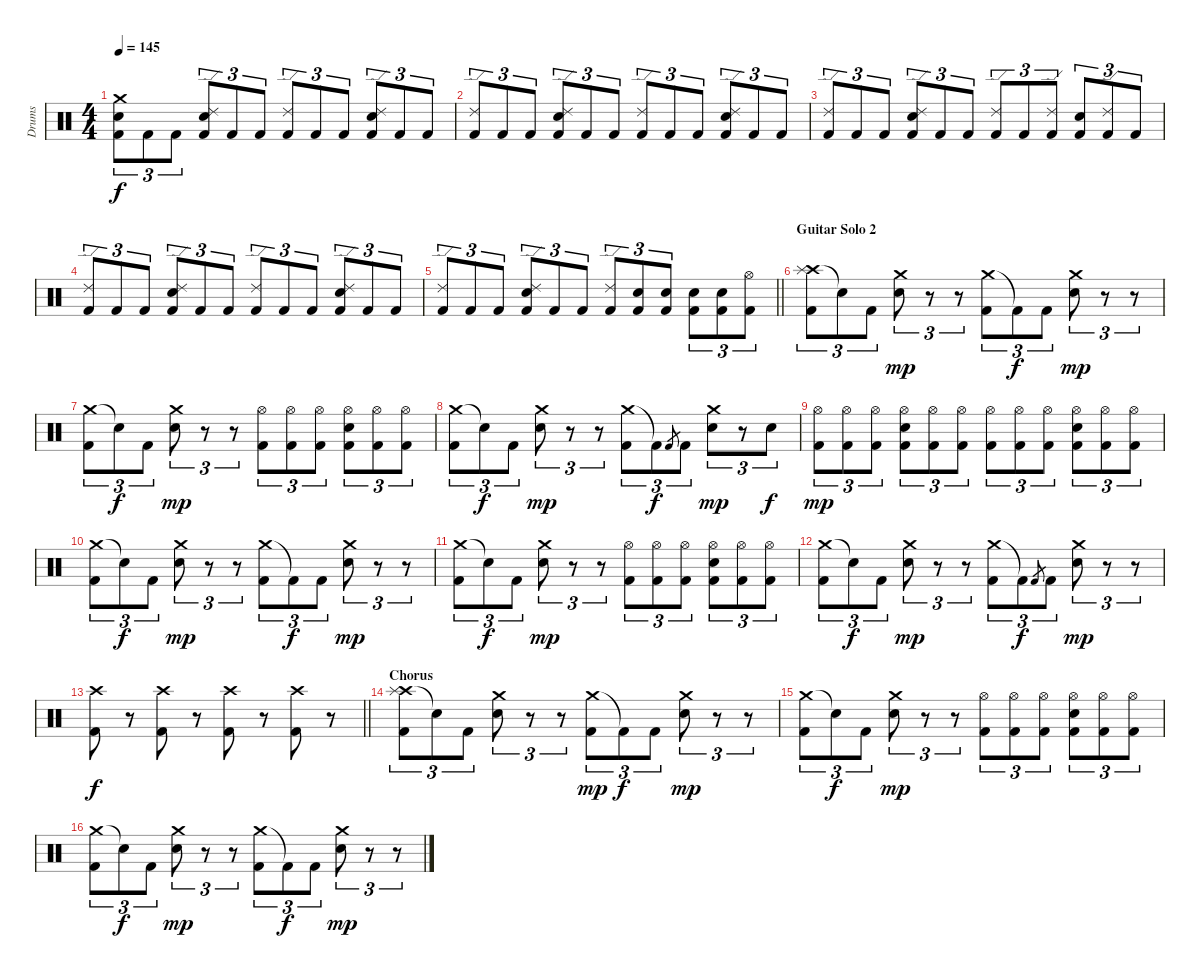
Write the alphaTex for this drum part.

\track ("Drums" "Drums") {instrument percussion}
\staff {score}
\articulation defaults
\ts (4 4)
\tempo 145
\clef neutral
\ks c
("Crash medium (hit)" "Snare (hit) 2" "Kick (hit) 2").8{tu (3 2) dy f} "Kick (hit) 2".8{tu (3 2)} "Kick (hit) 2".8{tu (3 2)} ("Ride (edge) 2" "Snare (hit) 2" "Kick (hit) 2").8{tu (3 2)} "Kick (hit) 2".8{tu (3 2)} "Kick (hit) 2".8{tu (3 2)} ("Ride (edge) 2" "Kick (hit) 2").8{tu (3 2)} "Kick (hit) 2".8{tu (3 2)} "Kick (hit) 2".8{tu (3 2)} ("Ride (edge) 2" "Snare (hit) 2" "Kick (hit) 2").8{tu (3 2)} "Kick (hit) 2".8{tu (3 2)} "Kick (hit) 2".8{tu (3 2)} |
("Ride (edge) 2" "Kick (hit) 2").8{tu (3 2)} "Kick (hit) 2".8{tu (3 2)} "Kick (hit) 2".8{tu (3 2)} ("Ride (edge) 2" "Snare (hit) 2" "Kick (hit) 2").8{tu (3 2)} "Kick (hit) 2".8{tu (3 2)} "Kick (hit) 2".8{tu (3 2)} ("Ride (edge) 2" "Kick (hit) 2").8{tu (3 2)} "Kick (hit) 2".8{tu (3 2)} "Kick (hit) 2".8{tu (3 2)} ("Ride (edge) 2" "Snare (hit) 2" "Kick (hit) 2").8{tu (3 2)} "Kick (hit) 2".8{tu (3 2)} "Kick (hit) 2".8{tu (3 2)} |
("Ride (edge) 2" "Kick (hit) 2").8{tu (3 2)} "Kick (hit) 2".8{tu (3 2)} "Kick (hit) 2".8{tu (3 2)} ("Ride (edge) 2" "Snare (hit) 2" "Kick (hit) 2").8{tu (3 2)} "Kick (hit) 2".8{tu (3 2)} "Kick (hit) 2".8{tu (3 2)} ("Ride (edge) 2" "Kick (hit) 2").8{tu (3 2)} "Kick (hit) 2".8{tu (3 2)} ("Ride (edge) 2" "Kick (hit) 2").8{tu (3 2)} ("Snare (hit) 2" "Kick (hit) 2").8{tu (3 2)} ("Ride (edge) 2" "Kick (hit) 2").8{tu (3 2)} "Kick (hit) 2".8{tu (3 2)} |
("Ride (edge) 2" "Kick (hit) 2").8{tu (3 2)} "Kick (hit) 2".8{tu (3 2)} "Kick (hit) 2".8{tu (3 2)} ("Ride (edge) 2" "Snare (hit) 2" "Kick (hit) 2").8{tu (3 2)} "Kick (hit) 2".8{tu (3 2)} "Kick (hit) 2".8{tu (3 2)} ("Ride (edge) 2" "Kick (hit) 2").8{tu (3 2)} "Kick (hit) 2".8{tu (3 2)} "Kick (hit) 2".8{tu (3 2)} ("Ride (edge) 2" "Snare (hit) 2" "Kick (hit) 2").8{tu (3 2)} "Kick (hit) 2".8{tu (3 2)} "Kick (hit) 2".8{tu (3 2)} |
\barLineRight lightlight
("Ride (edge) 2" "Kick (hit) 2").8{tu (3 2)} "Kick (hit) 2".8{tu (3 2)} "Kick (hit) 2".8{tu (3 2)} ("Ride (edge) 2" "Snare (hit) 2" "Kick (hit) 2").8{tu (3 2)} "Kick (hit) 2".8{tu (3 2)} "Kick (hit) 2".8{tu (3 2)} ("Ride (edge) 2" "Kick (hit) 2").8{tu (3 2)} ("Snare (hit) 2" "Kick (hit) 2").8{tu (3 2)} ("Snare (hit) 2" "Kick (hit) 2").8{tu (3 2)} ("Snare (hit) 2" "Kick (hit) 2").8{tu (3 2)} ("Snare (hit) 2" "Kick (hit) 2").8{tu (3 2)} ("Hi-Hat (open)" "Kick (hit) 2").8{tu (3 2)} |
\section ("" "Guitar Solo 2")
("Crash high (hit)" "Splash (hit)" "Kick (hit) 2").8{tu (3 2)} "Snare (hit)"{t}.8{tu (3 2)} "Kick (hit) 2".8{tu (3 2)} ("Crash medium (hit)" "Snare (hit) 2").8{tu (3 2) dy mp} r.8{tu (3 2)} r.8{tu (3 2)} ("Crash medium (hit)" "Kick (hit) 2").8{tu (3 2)} "Kick (hit) 2"{t}.8{tu (3 2) dy f} "Kick (hit) 2".8{tu (3 2)} ("Crash medium (hit)" "Snare (hit) 2").8{tu (3 2) dy mp} r.8{tu (3 2)} r.8{tu (3 2)} |
("Crash medium (hit)" "Kick (hit) 2").8{tu (3 2)} "Snare (hit)"{t}.8{tu (3 2) dy f} "Kick (hit) 2".8{tu (3 2)} ("Crash medium (hit)" "Snare (hit) 2").8{tu (3 2) dy mp} r.8{tu (3 2)} r.8{tu (3 2)} ("Hi-Hat (open)" "Kick (hit) 2").8{tu (3 2)} ("Hi-Hat (open)" "Kick (hit) 2").8{tu (3 2)} ("Hi-Hat (open)" "Kick (hit) 2").8{tu (3 2)} ("Hi-Hat (open)" "Snare (hit) 2" "Kick (hit) 2").8{tu (3 2)} ("Hi-Hat (open)" "Kick (hit) 2").8{tu (3 2)} ("Hi-Hat (open)" "Kick (hit) 2").8{tu (3 2)} |
("Crash medium (hit)" "Kick (hit) 2").8{tu (3 2)} "Snare (hit)"{t}.8{tu (3 2) dy f} "Kick (hit) 2".8{tu (3 2)} ("Crash medium (hit)" "Snare (hit) 2").8{tu (3 2) dy mp} r.8{tu (3 2)} r.8{tu (3 2)} ("Crash medium (hit)" "Kick (hit) 2").8{tu (3 2)} "Kick (hit) 2"{t}.8{tu (3 2) dy f} "Kick (hit) 2".8{gr} "Kick (hit) 2".8{tu (3 2)} ("Crash medium (hit)" "Snare (hit) 2").8{tu (3 2) dy mp} r.8{tu (3 2)} "Snare (hit) 2".8{tu (3 2) dy f} |
("Hi-Hat (open)" "Kick (hit) 2").8{tu (3 2) dy mp} ("Hi-Hat (open)" "Kick (hit) 2").8{tu (3 2)} ("Hi-Hat (open)" "Kick (hit) 2").8{tu (3 2)} ("Hi-Hat (open)" "Snare (hit) 2" "Kick (hit) 2").8{tu (3 2)} ("Hi-Hat (open)" "Kick (hit) 2").8{tu (3 2)} ("Hi-Hat (open)" "Kick (hit) 2").8{tu (3 2)} ("Hi-Hat (open)" "Kick (hit) 2").8{tu (3 2)} ("Hi-Hat (open)" "Kick (hit) 2").8{tu (3 2)} ("Hi-Hat (open)" "Kick (hit) 2").8{tu (3 2)} ("Hi-Hat (open)" "Snare (hit) 2" "Kick (hit) 2").8{tu (3 2)} ("Hi-Hat (open)" "Kick (hit) 2").8{tu (3 2)} ("Hi-Hat (open)" "Kick (hit) 2").8{tu (3 2)} |
("Crash medium (hit)" "Kick (hit) 2").8{tu (3 2)} "Snare (hit)"{t}.8{tu (3 2) dy f} "Kick (hit) 2".8{tu (3 2)} ("Crash medium (hit)" "Snare (hit) 2").8{tu (3 2) dy mp} r.8{tu (3 2)} r.8{tu (3 2)} ("Crash medium (hit)" "Kick (hit) 2").8{tu (3 2)} "Kick (hit) 2"{t}.8{tu (3 2) dy f} "Kick (hit) 2".8{tu (3 2)} ("Crash medium (hit)" "Snare (hit) 2").8{tu (3 2) dy mp} r.8{tu (3 2)} r.8{tu (3 2)} |
("Crash medium (hit)" "Kick (hit) 2").8{tu (3 2)} "Snare (hit)"{t}.8{tu (3 2) dy f} "Kick (hit) 2".8{tu (3 2)} ("Crash medium (hit)" "Snare (hit) 2").8{tu (3 2) dy mp} r.8{tu (3 2)} r.8{tu (3 2)} ("Hi-Hat (open)" "Kick (hit) 2").8{tu (3 2)} ("Hi-Hat (open)" "Kick (hit) 2").8{tu (3 2)} ("Hi-Hat (open)" "Kick (hit) 2").8{tu (3 2)} ("Hi-Hat (open)" "Snare (hit) 2" "Kick (hit) 2").8{tu (3 2)} ("Hi-Hat (open)" "Kick (hit) 2").8{tu (3 2)} ("Hi-Hat (open)" "Kick (hit) 2").8{tu (3 2)} |
("Crash medium (hit)" "Kick (hit) 2").8{tu (3 2)} "Snare (hit)"{t}.8{tu (3 2) dy f} "Kick (hit) 2".8{tu (3 2)} ("Crash medium (hit)" "Snare (hit) 2").8{tu (3 2) dy mp} r.8{tu (3 2)} r.8{tu (3 2)} ("Crash medium (hit)" "Kick (hit) 2").8{tu (3 2)} "Kick (hit) 2"{t}.8{tu (3 2) dy f} "Kick (hit) 2".8{gr} "Kick (hit) 2".8{tu (3 2)} ("Crash medium (hit)" "Snare (hit) 2").8{tu (3 2) dy mp} r.8{tu (3 2)} r.8{tu (3 2)} |
\barLineRight lightlight
("Crash high (hit)" "Kick (hit) 2").8{dy f} r.8 ("Crash high (hit)" "Kick (hit) 2").8 r.8 ("Crash high (hit)" "Kick (hit) 2").8 r.8 ("Crash high (hit)" "Kick (hit) 2").8 r.8 |
\section ("" "Chorus")
("Crash high (hit)" "Splash (hit)" "Kick (hit) 2").8{tu (3 2)} "Snare (hit)"{t}.8{tu (3 2)} "Kick (hit) 2".8{tu (3 2)} ("Crash medium (hit)" "Snare (hit) 2").8{tu (3 2)} r.8{tu (3 2)} r.8{tu (3 2)} ("Crash medium (hit)" "Kick (hit) 2").8{tu (3 2) dy mp} "Kick (hit) 2"{t}.8{tu (3 2) dy f} "Kick (hit) 2".8{tu (3 2)} ("Crash medium (hit)" "Snare (hit) 2").8{tu (3 2) dy mp} r.8{tu (3 2)} r.8{tu (3 2)} |
("Crash medium (hit)" "Kick (hit) 2").8{tu (3 2)} "Snare (hit)"{t}.8{tu (3 2) dy f} "Kick (hit) 2".8{tu (3 2)} ("Crash medium (hit)" "Snare (hit) 2").8{tu (3 2) dy mp} r.8{tu (3 2)} r.8{tu (3 2)} ("Hi-Hat (open)" "Kick (hit) 2").8{tu (3 2)} ("Hi-Hat (open)" "Kick (hit) 2").8{tu (3 2)} ("Hi-Hat (open)" "Kick (hit) 2").8{tu (3 2)} ("Hi-Hat (open)" "Snare (hit) 2" "Kick (hit) 2").8{tu (3 2)} ("Hi-Hat (open)" "Kick (hit) 2").8{tu (3 2)} ("Hi-Hat (open)" "Kick (hit) 2").8{tu (3 2)} |
("Crash medium (hit)" "Kick (hit) 2").8{tu (3 2)} "Snare (hit)"{t}.8{tu (3 2) dy f} "Kick (hit) 2".8{tu (3 2)} ("Crash medium (hit)" "Snare (hit) 2").8{tu (3 2) dy mp} r.8{tu (3 2)} r.8{tu (3 2)} ("Crash medium (hit)" "Kick (hit) 2").8{tu (3 2)} "Kick (hit) 2"{t}.8{tu (3 2) dy f} "Kick (hit) 2".8{tu (3 2)} ("Crash medium (hit)" "Snare (hit) 2").8{tu (3 2) dy mp} r.8{tu (3 2)} r.8{tu (3 2)}
